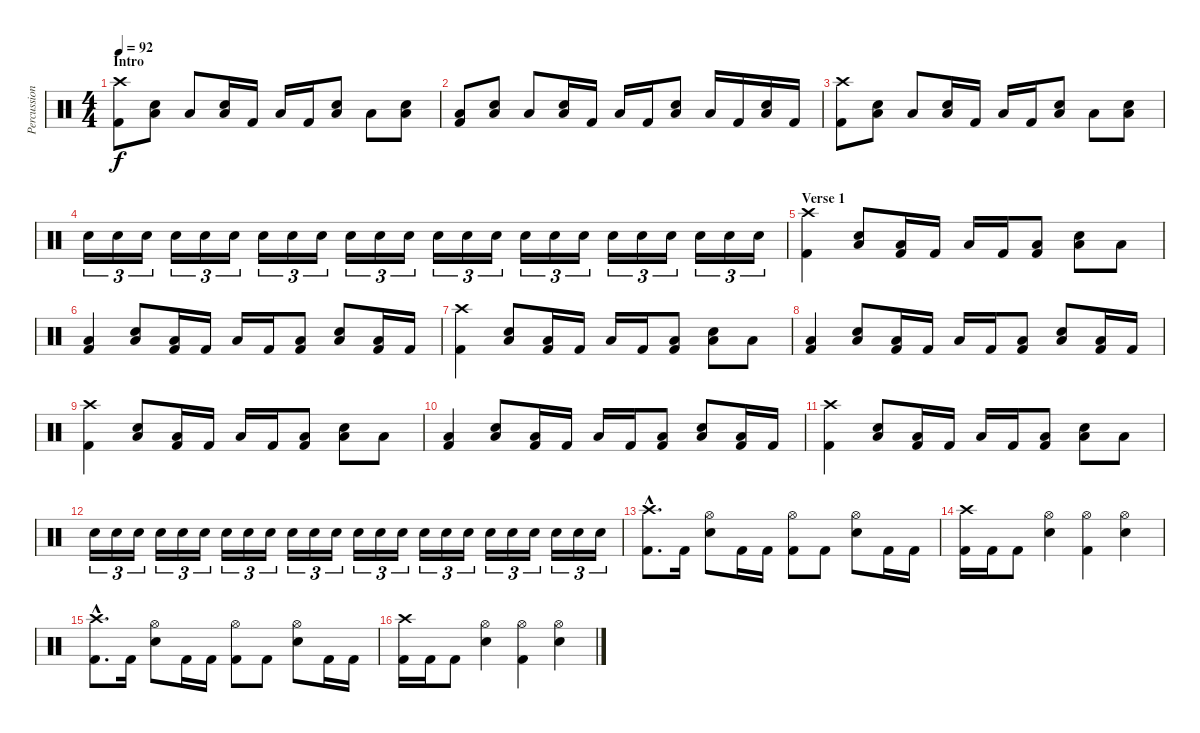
\track ("Percussion" "Percussion") {instrument percussion}
\staff {score}
\articulation defaults
\ts (4 4)
\section ("" "Intro")
\tempo 92
\clef neutral
\ks c
("Crash high (hit)" "Kick (hit) 2").8{dy f} ("Low Tom (hit)" "Electric Snare (hit)").8 "Low Tom (hit)".8 ("Low Tom (hit)" "Electric Snare (hit)").16 "Kick (hit) 2".16 "Low Tom (hit)".16 "Kick (hit) 2".16 ("Low Tom (hit)" "Electric Snare (hit)").8 "Low Tom (hit)".8 ("Low Tom (hit)" "Electric Snare (hit)").8 |
("Low Tom (hit)" "Kick (hit) 2").8 ("Low Tom (hit)" "Electric Snare (hit)").8 "Low Tom (hit)".8 ("Low Tom (hit)" "Electric Snare (hit)").16 "Kick (hit) 2".16 "Low Tom (hit)".16 "Kick (hit) 2".16 ("Low Tom (hit)" "Electric Snare (hit)").8 "Low Tom (hit)".16 "Kick (hit) 2".16 ("Low Tom (hit)" "Electric Snare (hit)").16 "Kick (hit) 2".16 |
("Crash high (hit)" "Kick (hit) 2").8 ("Low Tom (hit)" "Electric Snare (hit)").8 "Low Tom (hit)".8 ("Low Tom (hit)" "Electric Snare (hit)").16 "Kick (hit) 2".16 "Low Tom (hit)".16 "Kick (hit) 2".16 ("Low Tom (hit)" "Electric Snare (hit)").8 "Low Tom (hit)".8 ("Low Tom (hit)" "Electric Snare (hit)").8 |
"Electric Snare (hit)".16{tu (3 2)} "Electric Snare (hit)".16{tu (3 2)} "Electric Snare (hit)".16{tu (3 2)} "Electric Snare (hit)".16{tu (3 2)} "Electric Snare (hit)".16{tu (3 2)} "Electric Snare (hit)".16{tu (3 2)} "Electric Snare (hit)".16{tu (3 2)} "Electric Snare (hit)".16{tu (3 2)} "Electric Snare (hit)".16{tu (3 2)} "Electric Snare (hit)".16{tu (3 2)} "Electric Snare (hit)".16{tu (3 2)} "Electric Snare (hit)".16{tu (3 2)} "Electric Snare (hit)".16{tu (3 2)} "Electric Snare (hit)".16{tu (3 2)} "Electric Snare (hit)".16{tu (3 2)} "Electric Snare (hit)".16{tu (3 2)} "Electric Snare (hit)".16{tu (3 2)} "Electric Snare (hit)".16{tu (3 2)} "Electric Snare (hit)".16{tu (3 2)} "Electric Snare (hit)".16{tu (3 2)} "Electric Snare (hit)".16{tu (3 2)} "Electric Snare (hit)".16{tu (3 2)} "Electric Snare (hit)".16{tu (3 2)} "Electric Snare (hit)".16{tu (3 2)} |
\section ("" "Verse 1")
("Crash high (hit)" "Kick (hit) 2").4 ("Low Tom (hit)" "Electric Snare (hit)").8 ("Low Tom (hit)" "Kick (hit) 2").16 "Kick (hit) 2".16 "Low Tom (hit)".16 "Kick (hit) 2".16 ("Low Tom (hit)" "Kick (hit) 2").8 ("Low Tom (hit)" "Electric Snare (hit)").8 "Low Tom (hit)".8 |
("Low Tom (hit)" "Kick (hit) 2").4 ("Low Tom (hit)" "Electric Snare (hit)").8 ("Low Tom (hit)" "Kick (hit) 2").16 "Kick (hit) 2".16 "Low Tom (hit)".16 "Kick (hit) 2".16 ("Low Tom (hit)" "Kick (hit) 2").8 ("Low Tom (hit)" "Electric Snare (hit)").8 ("Low Tom (hit)" "Kick (hit) 2").16 "Kick (hit) 2".16 |
("Crash high (hit)" "Kick (hit) 2").4 ("Low Tom (hit)" "Electric Snare (hit)").8 ("Low Tom (hit)" "Kick (hit) 2").16 "Kick (hit) 2".16 "Low Tom (hit)".16 "Kick (hit) 2".16 ("Low Tom (hit)" "Kick (hit) 2").8 ("Low Tom (hit)" "Electric Snare (hit)").8 "Low Tom (hit)".8 |
("Low Tom (hit)" "Kick (hit) 2").4 ("Low Tom (hit)" "Electric Snare (hit)").8 ("Low Tom (hit)" "Kick (hit) 2").16 "Kick (hit) 2".16 "Low Tom (hit)".16 "Kick (hit) 2".16 ("Low Tom (hit)" "Kick (hit) 2").8 ("Low Tom (hit)" "Electric Snare (hit)").8 ("Low Tom (hit)" "Kick (hit) 2").16 "Kick (hit) 2".16 |
("Crash high (hit)" "Kick (hit) 2").4 ("Low Tom (hit)" "Electric Snare (hit)").8 ("Low Tom (hit)" "Kick (hit) 2").16 "Kick (hit) 2".16 "Low Tom (hit)".16 "Kick (hit) 2".16 ("Low Tom (hit)" "Kick (hit) 2").8 ("Low Tom (hit)" "Electric Snare (hit)").8 "Low Tom (hit)".8 |
("Low Tom (hit)" "Kick (hit) 2").4 ("Low Tom (hit)" "Electric Snare (hit)").8 ("Low Tom (hit)" "Kick (hit) 2").16 "Kick (hit) 2".16 "Low Tom (hit)".16 "Kick (hit) 2".16 ("Low Tom (hit)" "Kick (hit) 2").8 ("Low Tom (hit)" "Electric Snare (hit)").8 ("Low Tom (hit)" "Kick (hit) 2").16 "Kick (hit) 2".16 |
("Crash high (hit)" "Kick (hit) 2").4 ("Low Tom (hit)" "Electric Snare (hit)").8 ("Low Tom (hit)" "Kick (hit) 2").16 "Kick (hit) 2".16 "Low Tom (hit)".16 "Kick (hit) 2".16 ("Low Tom (hit)" "Kick (hit) 2").8 ("Low Tom (hit)" "Electric Snare (hit)").8 "Low Tom (hit)".8 |
"Electric Snare (hit)".16{tu (3 2)} "Electric Snare (hit)".16{tu (3 2)} "Electric Snare (hit)".16{tu (3 2)} "Electric Snare (hit)".16{tu (3 2)} "Electric Snare (hit)".16{tu (3 2)} "Electric Snare (hit)".16{tu (3 2)} "Electric Snare (hit)".16{tu (3 2)} "Electric Snare (hit)".16{tu (3 2)} "Electric Snare (hit)".16{tu (3 2)} "Electric Snare (hit)".16{tu (3 2)} "Electric Snare (hit)".16{tu (3 2)} "Electric Snare (hit)".16{tu (3 2)} "Electric Snare (hit)".16{tu (3 2)} "Electric Snare (hit)".16{tu (3 2)} "Electric Snare (hit)".16{tu (3 2)} "Electric Snare (hit)".16{tu (3 2)} "Electric Snare (hit)".16{tu (3 2)} "Electric Snare (hit)".16{tu (3 2)} "Electric Snare (hit)".16{tu (3 2)} "Electric Snare (hit)".16{tu (3 2)} "Electric Snare (hit)".16{tu (3 2)} "Electric Snare (hit)".16{tu (3 2)} "Electric Snare (hit)".16{tu (3 2)} "Electric Snare (hit)".16{tu (3 2)} |
("Crash high (hit)"{hac} "Kick (hit) 2"{hac}).8{d} "Kick (hit) 2".16 ("Hi-Hat (open)" "Electric Snare (hit)").8 "Kick (hit) 2".16 "Kick (hit) 2".16 ("Hi-Hat (open)" "Kick (hit) 2").8 "Kick (hit) 2".8 ("Hi-Hat (open)" "Electric Snare (hit)").8 "Kick (hit) 2".16 "Kick (hit) 2".16 |
("Crash high (hit)" "Kick (hit) 2").16 "Kick (hit) 2".16 "Kick (hit) 2".8 ("Hi-Hat (open)" "Electric Snare (hit)").4 ("Hi-Hat (open)" "Kick (hit) 2").4 ("Hi-Hat (open)" "Electric Snare (hit)").4 |
("Crash high (hit)"{hac} "Kick (hit) 2"{hac}).8{d} "Kick (hit) 2".16 ("Hi-Hat (open)" "Electric Snare (hit)").8 "Kick (hit) 2".16 "Kick (hit) 2".16 ("Hi-Hat (open)" "Kick (hit) 2").8 "Kick (hit) 2".8 ("Hi-Hat (open)" "Electric Snare (hit)").8 "Kick (hit) 2".16 "Kick (hit) 2".16 |
("Crash high (hit)" "Kick (hit) 2").16 "Kick (hit) 2".16 "Kick (hit) 2".8 ("Hi-Hat (open)" "Electric Snare (hit)").4 ("Hi-Hat (open)" "Kick (hit) 2").4 ("Hi-Hat (open)" "Electric Snare (hit)").4
